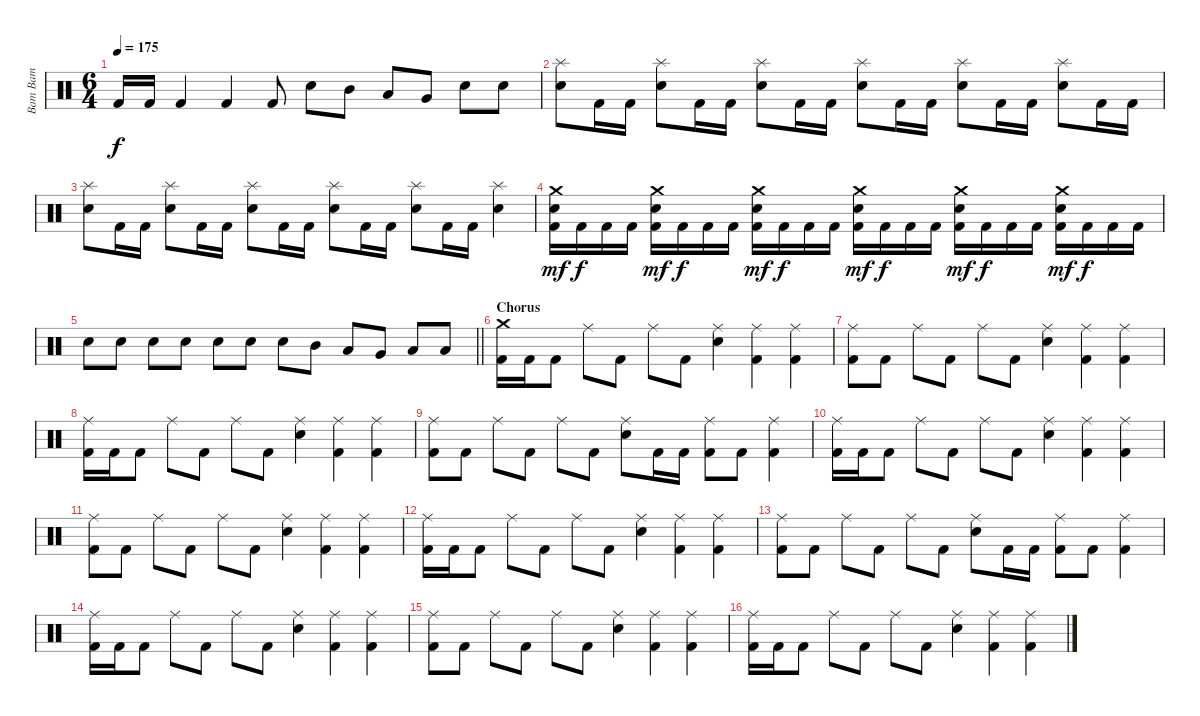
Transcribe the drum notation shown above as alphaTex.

\track ("Bam Bam" "Bam Bam") {instrument percussion}
\staff {score}
\articulation defaults
\ts (6 4)
\tempo 175
\clef neutral
\ks c "Kick (hit) 2".16{dy f} "Kick (hit) 2".16 "Kick (hit) 2".4 "Kick (hit) 2".4 "Kick (hit) 2".8 "Electric Snare (hit)".8 "Mid Tom (hit)".8 "Low Tom (hit)".8 "Very Low Tom (hit)".8 "Electric Snare (hit)".8 "Electric Snare (hit)".8
|
("Splash (hit)" "Electric Snare (hit)").8 "Kick (hit) 2".16 "Kick (hit) 2".16 ("Splash (hit)" "Electric Snare (hit)").8 "Kick (hit) 2".16 "Kick (hit) 2".16 ("Splash (hit)" "Electric Snare (hit)").8 "Kick (hit) 2".16 "Kick (hit) 2".16 ("Splash (hit)" "Electric Snare (hit)").8 "Kick (hit) 2".16 "Kick (hit) 2".16 ("Splash (hit)" "Electric Snare (hit)").8 "Kick (hit) 2".16 "Kick (hit) 2".16 ("Splash (hit)" "Electric Snare (hit)").8 "Kick (hit) 2".16 "Kick (hit) 2".16 |
("Splash (hit)" "Electric Snare (hit)").8 "Kick (hit) 2".16 "Kick (hit) 2".16 ("Splash (hit)" "Electric Snare (hit)").8 "Kick (hit) 2".16 "Kick (hit) 2".16 ("Splash (hit)" "Electric Snare (hit)").8 "Kick (hit) 2".16 "Kick (hit) 2".16 ("Splash (hit)" "Electric Snare (hit)").8 "Kick (hit) 2".16 "Kick (hit) 2".16 ("Splash (hit)" "Electric Snare (hit)").8 "Kick (hit) 2".16 "Kick (hit) 2".16 ("Splash (hit)" "Electric Snare (hit)").4 |
("Crash medium (hit)" "Electric Snare (hit)" "Kick (hit) 2").16{dy mf} "Kick (hit) 2".16{dy f} "Kick (hit) 2".16 "Kick (hit) 2".16 ("Crash medium (hit)" "Electric Snare (hit)" "Kick (hit) 2").16{dy mf} "Kick (hit) 2".16{dy f} "Kick (hit) 2".16 "Kick (hit) 2".16 ("Crash medium (hit)" "Electric Snare (hit)" "Kick (hit) 2").16{dy mf} "Kick (hit) 2".16{dy f} "Kick (hit) 2".16 "Kick (hit) 2".16 ("Crash medium (hit)" "Electric Snare (hit)" "Kick (hit) 2").16{dy mf} "Kick (hit) 2".16{dy f} "Kick (hit) 2".16 "Kick (hit) 2".16 ("Crash medium (hit)" "Electric Snare (hit)" "Kick (hit) 2").16{dy mf} "Kick (hit) 2".16{dy f} "Kick (hit) 2".16 "Kick (hit) 2".16 ("Crash medium (hit)" "Electric Snare (hit)" "Kick (hit) 2").16{dy mf} "Kick (hit) 2".16{dy f} "Kick (hit) 2".16 "Kick (hit) 2".16 |
\barLineRight lightlight "Electric Snare (hit)".8 "Electric Snare (hit)".8 "Electric Snare (hit)".8 "Electric Snare (hit)".8 "Electric Snare (hit)".8 "Electric Snare (hit)".8 "Electric Snare (hit)".8 "Mid Tom (hit)".8 "Low Tom (hit)".8 "Very Low Tom (hit)".8 "Low Floor Tom (hit)".8 "Low Floor Tom (hit)".8
|
\section ("" "Chorus")
("Crash medium (hit)" "Kick (hit) 2").16 "Kick (hit) 2".16 "Kick (hit) 2".8 "Ride (middle)".8 "Kick (hit) 2".8 "Ride (middle)".8 "Kick (hit) 2".8 ("Ride (middle)" "Electric Snare (hit)").4 ("Ride (middle)" "Kick (hit) 2").4 ("Ride (middle)" "Kick (hit) 2").4 |
("Ride (middle)" "Kick (hit) 2").8 "Kick (hit) 2".8 "Ride (middle)".8 "Kick (hit) 2".8 "Ride (middle)".8 "Kick (hit) 2".8 ("Ride (middle)" "Electric Snare (hit)").4 ("Ride (middle)" "Kick (hit) 2").4 ("Ride (middle)" "Kick (hit) 2").4 |
("Ride (middle)" "Kick (hit) 2").16 "Kick (hit) 2".16 "Kick (hit) 2".8 "Ride (middle)".8 "Kick (hit) 2".8 "Ride (middle)".8 "Kick (hit) 2".8 ("Ride (middle)" "Electric Snare (hit)").4 ("Ride (middle)" "Kick (hit) 2").4 ("Ride (middle)" "Kick (hit) 2").4 |
("Ride (middle)" "Kick (hit) 2").8 "Kick (hit) 2".8 "Ride (middle)".8 "Kick (hit) 2".8 "Ride (middle)".8 "Kick (hit) 2".8 ("Ride (middle)" "Electric Snare (hit)").8 "Kick (hit) 2".16 "Kick (hit) 2".16 ("Ride (middle)" "Kick (hit) 2").8 "Kick (hit) 2".8 ("Ride (middle)" "Kick (hit) 2").4 |
("Ride (middle)" "Kick (hit) 2").16 "Kick (hit) 2".16 "Kick (hit) 2".8 "Ride (middle)".8 "Kick (hit) 2".8 "Ride (middle)".8 "Kick (hit) 2".8 ("Ride (middle)" "Electric Snare (hit)").4 ("Ride (middle)" "Kick (hit) 2").4 ("Ride (middle)" "Kick (hit) 2").4 |
("Ride (middle)" "Kick (hit) 2").8 "Kick (hit) 2".8 "Ride (middle)".8 "Kick (hit) 2".8 "Ride (middle)".8 "Kick (hit) 2".8 ("Ride (middle)" "Electric Snare (hit)").4 ("Ride (middle)" "Kick (hit) 2").4 ("Ride (middle)" "Kick (hit) 2").4 |
("Ride (middle)" "Kick (hit) 2").16 "Kick (hit) 2".16 "Kick (hit) 2".8 "Ride (middle)".8 "Kick (hit) 2".8 "Ride (middle)".8 "Kick (hit) 2".8 ("Ride (middle)" "Electric Snare (hit)").4 ("Ride (middle)" "Kick (hit) 2").4 ("Ride (middle)" "Kick (hit) 2").4 |
("Ride (middle)" "Kick (hit) 2").8 "Kick (hit) 2".8 "Ride (middle)".8 "Kick (hit) 2".8 "Ride (middle)".8 "Kick (hit) 2".8 ("Ride (middle)" "Electric Snare (hit)").8 "Kick (hit) 2".16 "Kick (hit) 2".16 ("Ride (middle)" "Kick (hit) 2").8 "Kick (hit) 2".8 ("Ride (middle)" "Kick (hit) 2").4 |
("Ride (middle)" "Kick (hit) 2").16 "Kick (hit) 2".16 "Kick (hit) 2".8 "Ride (middle)".8 "Kick (hit) 2".8 "Ride (middle)".8 "Kick (hit) 2".8 ("Ride (middle)" "Electric Snare (hit)").4 ("Ride (middle)" "Kick (hit) 2").4 ("Ride (middle)" "Kick (hit) 2").4 |
("Ride (middle)" "Kick (hit) 2").8 "Kick (hit) 2".8 "Ride (middle)".8 "Kick (hit) 2".8 "Ride (middle)".8 "Kick (hit) 2".8 ("Ride (middle)" "Electric Snare (hit)").4 ("Ride (middle)" "Kick (hit) 2").4 ("Ride (middle)" "Kick (hit) 2").4 |
("Ride (middle)" "Kick (hit) 2").16 "Kick (hit) 2".16 "Kick (hit) 2".8 "Ride (middle)".8 "Kick (hit) 2".8 "Ride (middle)".8 "Kick (hit) 2".8 ("Ride (middle)" "Electric Snare (hit)").4 ("Ride (middle)" "Kick (hit) 2").4 ("Ride (middle)" "Kick (hit) 2").4
